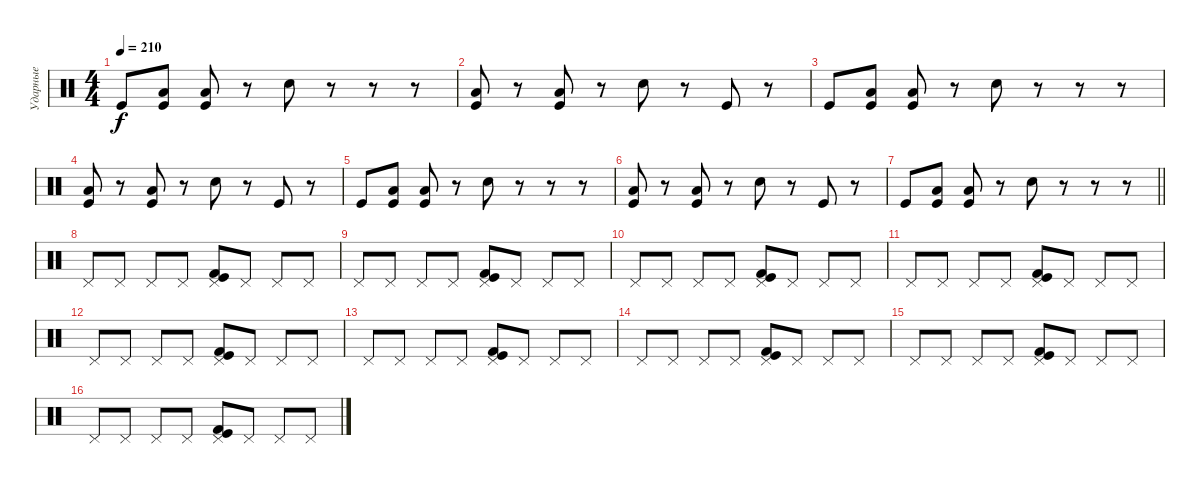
\track ("Ударные" "Ударные") {instrument percussion}
\staff {score}
\articulation defaults
\ts (4 4)
\tempo 210
\clef neutral
\ks c "Kick (hit)".8{dy f}
("Low Tom (hit)" "Kick (hit)").8 ("Low Tom (hit)" "Kick (hit)").8 r.8 "Electric Snare (hit)".8 r.8 r.8 r.8 |
("Low Tom (hit)" "Kick (hit)").8 r.8 ("Low Tom (hit)" "Kick (hit)").8 r.8 "Electric Snare (hit)".8 r.8 "Kick (hit)".8 r.8 |
"Kick (hit)".8 ("Low Tom (hit)" "Kick (hit)").8 ("Low Tom (hit)" "Kick (hit)").8 r.8 "Electric Snare (hit)".8 r.8 r.8 r.8 |
("Low Tom (hit)" "Kick (hit)").8 r.8 ("Low Tom (hit)" "Kick (hit)").8 r.8 "Electric Snare (hit)".8 r.8 "Kick (hit)".8 r.8 |
"Kick (hit)".8 ("Low Tom (hit)" "Kick (hit)").8 ("Low Tom (hit)" "Kick (hit)").8 r.8 "Electric Snare (hit)".8 r.8 r.8 r.8 |
("Low Tom (hit)" "Kick (hit)").8 r.8 ("Low Tom (hit)" "Kick (hit)").8 r.8 "Electric Snare (hit)".8 r.8 "Kick (hit)".8 r.8 |
\barLineRight lightlight "Kick (hit)".8
("Low Tom (hit)" "Kick (hit)").8 ("Low Tom (hit)" "Kick (hit)").8 r.8 "Electric Snare (hit)".8 r.8 r.8 r.8 |
"Pedal Hi-Hat (hit)".8 "Pedal Hi-Hat (hit)".8 "Pedal Hi-Hat (hit)".8 "Pedal Hi-Hat (hit)".8 ("Pedal Hi-Hat (hit)" "Kick (hit)" "Kick (hit) 2").8 "Pedal Hi-Hat (hit)".8 "Pedal Hi-Hat (hit)".8 "Pedal Hi-Hat (hit)".8 |
"Pedal Hi-Hat (hit)".8 "Pedal Hi-Hat (hit)".8 "Pedal Hi-Hat (hit)".8 "Pedal Hi-Hat (hit)".8 ("Pedal Hi-Hat (hit)" "Kick (hit)" "Kick (hit) 2").8 "Pedal Hi-Hat (hit)".8 "Pedal Hi-Hat (hit)".8 "Pedal Hi-Hat (hit)".8 |
"Pedal Hi-Hat (hit)".8 "Pedal Hi-Hat (hit)".8 "Pedal Hi-Hat (hit)".8 "Pedal Hi-Hat (hit)".8 ("Pedal Hi-Hat (hit)" "Kick (hit)" "Kick (hit) 2").8 "Pedal Hi-Hat (hit)".8 "Pedal Hi-Hat (hit)".8 "Pedal Hi-Hat (hit)".8 |
"Pedal Hi-Hat (hit)".8 "Pedal Hi-Hat (hit)".8 "Pedal Hi-Hat (hit)".8 "Pedal Hi-Hat (hit)".8 ("Pedal Hi-Hat (hit)" "Kick (hit)" "Kick (hit) 2").8 "Pedal Hi-Hat (hit)".8 "Pedal Hi-Hat (hit)".8 "Pedal Hi-Hat (hit)".8 |
"Pedal Hi-Hat (hit)".8 "Pedal Hi-Hat (hit)".8 "Pedal Hi-Hat (hit)".8 "Pedal Hi-Hat (hit)".8 ("Pedal Hi-Hat (hit)" "Kick (hit)" "Kick (hit) 2").8 "Pedal Hi-Hat (hit)".8 "Pedal Hi-Hat (hit)".8 "Pedal Hi-Hat (hit)".8 |
"Pedal Hi-Hat (hit)".8 "Pedal Hi-Hat (hit)".8 "Pedal Hi-Hat (hit)".8 "Pedal Hi-Hat (hit)".8 ("Pedal Hi-Hat (hit)" "Kick (hit)" "Kick (hit) 2").8 "Pedal Hi-Hat (hit)".8 "Pedal Hi-Hat (hit)".8 "Pedal Hi-Hat (hit)".8 |
"Pedal Hi-Hat (hit)".8 "Pedal Hi-Hat (hit)".8 "Pedal Hi-Hat (hit)".8 "Pedal Hi-Hat (hit)".8 ("Pedal Hi-Hat (hit)" "Kick (hit)" "Kick (hit) 2").8 "Pedal Hi-Hat (hit)".8 "Pedal Hi-Hat (hit)".8 "Pedal Hi-Hat (hit)".8 |
"Pedal Hi-Hat (hit)".8 "Pedal Hi-Hat (hit)".8 "Pedal Hi-Hat (hit)".8 "Pedal Hi-Hat (hit)".8 ("Pedal Hi-Hat (hit)" "Kick (hit)" "Kick (hit) 2").8 "Pedal Hi-Hat (hit)".8 "Pedal Hi-Hat (hit)".8 "Pedal Hi-Hat (hit)".8 |
"Pedal Hi-Hat (hit)".8 "Pedal Hi-Hat (hit)".8 "Pedal Hi-Hat (hit)".8 "Pedal Hi-Hat (hit)".8 ("Pedal Hi-Hat (hit)" "Kick (hit)" "Kick (hit) 2").8 "Pedal Hi-Hat (hit)".8 "Pedal Hi-Hat (hit)".8 "Pedal Hi-Hat (hit)".8
